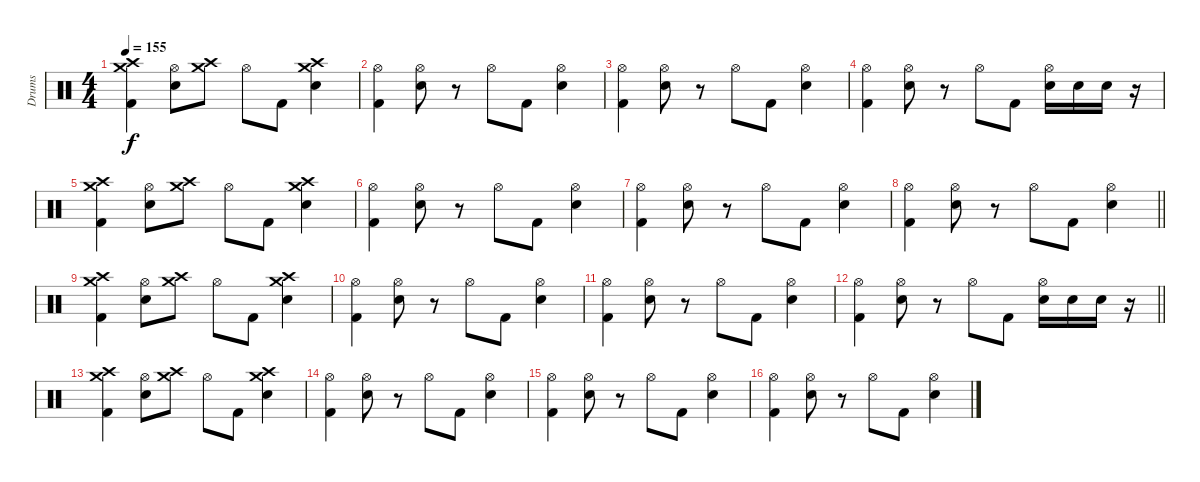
\track ("Drums" "Drums") {instrument percussion}
\staff {score}
\articulation defaults
\ts (4 4)
\tempo 155
\clef neutral
\ks c
("Crash high (hit)" "Crash medium (hit)" "Kick (hit) 2").4{dy f} ("Hi-Hat (open)" "Electric Snare (hit)").8 ("Crash high (hit)" "Crash medium (hit)").8 "Hi-Hat (open)".8 "Kick (hit) 2".8 ("Crash high (hit)" "Crash medium (hit)" "Electric Snare (hit)").4 |
("Hi-Hat (open)" "Kick (hit) 2").4 ("Hi-Hat (open)" "Electric Snare (hit)").8 r.8 "Hi-Hat (open)".8 "Kick (hit) 2".8 ("Hi-Hat (open)" "Electric Snare (hit)").4 |
("Hi-Hat (open)" "Kick (hit) 2").4 ("Hi-Hat (open)" "Electric Snare (hit)").8 r.8 "Hi-Hat (open)".8 "Kick (hit) 2".8 ("Hi-Hat (open)" "Electric Snare (hit)").4 |
("Hi-Hat (open)" "Kick (hit) 2").4 ("Hi-Hat (open)" "Electric Snare (hit)").8 r.8 "Hi-Hat (open)".8 "Kick (hit) 2".8 ("Hi-Hat (open)" "Electric Snare (hit)").16 "Electric Snare (hit)".16 "Electric Snare (hit)".16 r.16 |
("Crash high (hit)" "Crash medium (hit)" "Kick (hit) 2").4 ("Hi-Hat (open)" "Electric Snare (hit)").8 ("Crash high (hit)" "Crash medium (hit)").8 "Hi-Hat (open)".8 "Kick (hit) 2".8 ("Crash high (hit)" "Crash medium (hit)" "Electric Snare (hit)").4 |
("Hi-Hat (open)" "Kick (hit) 2").4 ("Hi-Hat (open)" "Electric Snare (hit)").8 r.8 "Hi-Hat (open)".8 "Kick (hit) 2".8 ("Hi-Hat (open)" "Electric Snare (hit)").4 |
("Hi-Hat (open)" "Kick (hit) 2").4 ("Hi-Hat (open)" "Electric Snare (hit)").8 r.8 "Hi-Hat (open)".8 "Kick (hit) 2".8 ("Hi-Hat (open)" "Electric Snare (hit)").4 |
\barLineRight lightlight
("Hi-Hat (open)" "Kick (hit) 2").4 ("Hi-Hat (open)" "Electric Snare (hit)").8 r.8 "Hi-Hat (open)".8 "Kick (hit) 2".8 ("Hi-Hat (open)" "Electric Snare (hit)").4 |
("Crash high (hit)" "Crash medium (hit)" "Kick (hit) 2").4 ("Hi-Hat (open)" "Electric Snare (hit)").8 ("Crash high (hit)" "Crash medium (hit)").8 "Hi-Hat (open)".8 "Kick (hit) 2".8 ("Crash high (hit)" "Crash medium (hit)" "Electric Snare (hit)").4 |
("Hi-Hat (open)" "Kick (hit) 2").4 ("Hi-Hat (open)" "Electric Snare (hit)").8 r.8 "Hi-Hat (open)".8 "Kick (hit) 2".8 ("Hi-Hat (open)" "Electric Snare (hit)").4 |
("Hi-Hat (open)" "Kick (hit) 2").4 ("Hi-Hat (open)" "Electric Snare (hit)").8 r.8 "Hi-Hat (open)".8 "Kick (hit) 2".8 ("Hi-Hat (open)" "Electric Snare (hit)").4 |
\barLineRight lightlight
("Hi-Hat (open)" "Kick (hit) 2").4 ("Hi-Hat (open)" "Electric Snare (hit)").8 r.8 "Hi-Hat (open)".8 "Kick (hit) 2".8 ("Hi-Hat (open)" "Electric Snare (hit)").16 "Electric Snare (hit)".16 "Electric Snare (hit)".16 r.16 |
("Crash high (hit)" "Crash medium (hit)" "Kick (hit) 2").4 ("Hi-Hat (open)" "Electric Snare (hit)").8 ("Crash high (hit)" "Crash medium (hit)").8 "Hi-Hat (open)".8 "Kick (hit) 2".8 ("Crash high (hit)" "Crash medium (hit)" "Electric Snare (hit)").4 |
("Hi-Hat (open)" "Kick (hit) 2").4 ("Hi-Hat (open)" "Electric Snare (hit)").8 r.8 "Hi-Hat (open)".8 "Kick (hit) 2".8 ("Hi-Hat (open)" "Electric Snare (hit)").4 |
("Hi-Hat (open)" "Kick (hit) 2").4 ("Hi-Hat (open)" "Electric Snare (hit)").8 r.8 "Hi-Hat (open)".8 "Kick (hit) 2".8 ("Hi-Hat (open)" "Electric Snare (hit)").4 |
("Hi-Hat (open)" "Kick (hit) 2").4 ("Hi-Hat (open)" "Electric Snare (hit)").8 r.8 "Hi-Hat (open)".8 "Kick (hit) 2".8 ("Hi-Hat (open)" "Electric Snare (hit)").4
